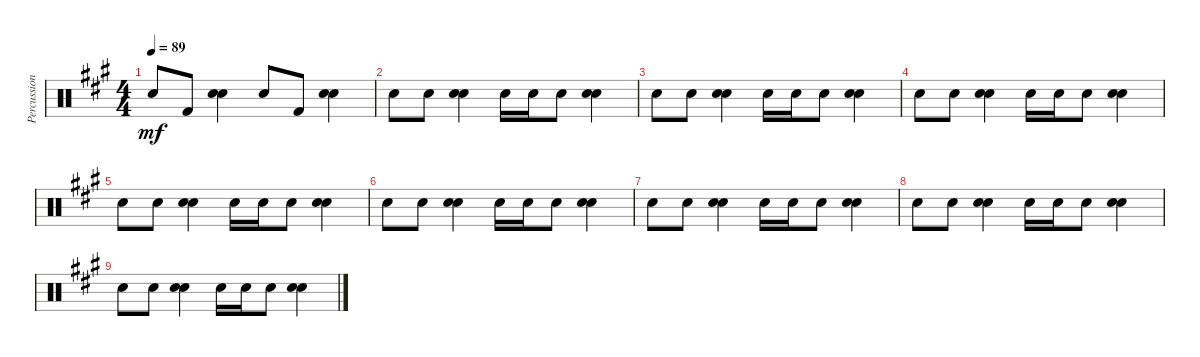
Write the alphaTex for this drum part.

\track ("Percussions" "Percussion") {instrument percussion}
\staff {score}
\articulation defaults
\ts (4 4)
\tempo 89
\clef neutral
\ks a "Electric Snare (hit)".8{dy mf} "Kick (hit) 2".8
("Snare (hit) 2" "Electric Snare (hit)").4 "Electric Snare (hit)".8 "Kick (hit) 2".8 ("Snare (hit) 2" "Electric Snare (hit)").4 |
"Electric Snare (hit)".8 "Electric Snare (hit)".8 ("Snare (hit) 2" "Electric Snare (hit)").4 "Electric Snare (hit)".16 "Electric Snare (hit)".16 "Electric Snare (hit)".8 ("Snare (hit) 2" "Electric Snare (hit)").4 |
"Electric Snare (hit)".8 "Electric Snare (hit)".8 ("Snare (hit) 2" "Electric Snare (hit)").4 "Electric Snare (hit)".16 "Electric Snare (hit)".16 "Electric Snare (hit)".8 ("Snare (hit) 2" "Electric Snare (hit)").4 |
"Electric Snare (hit)".8 "Electric Snare (hit)".8 ("Snare (hit) 2" "Electric Snare (hit)").4 "Electric Snare (hit)".16 "Electric Snare (hit)".16 "Electric Snare (hit)".8 ("Snare (hit) 2" "Electric Snare (hit)").4 |
"Electric Snare (hit)".8 "Electric Snare (hit)".8 ("Snare (hit) 2" "Electric Snare (hit)").4 "Electric Snare (hit)".16 "Electric Snare (hit)".16 "Electric Snare (hit)".8 ("Snare (hit) 2" "Electric Snare (hit)").4 |
"Electric Snare (hit)".8 "Electric Snare (hit)".8 ("Snare (hit) 2" "Electric Snare (hit)").4 "Electric Snare (hit)".16 "Electric Snare (hit)".16 "Electric Snare (hit)".8 ("Snare (hit) 2" "Electric Snare (hit)").4 |
"Electric Snare (hit)".8 "Electric Snare (hit)".8 ("Snare (hit) 2" "Electric Snare (hit)").4 "Electric Snare (hit)".16 "Electric Snare (hit)".16 "Electric Snare (hit)".8 ("Snare (hit) 2" "Electric Snare (hit)").4 |
"Electric Snare (hit)".8 "Electric Snare (hit)".8 ("Snare (hit) 2" "Electric Snare (hit)").4 "Electric Snare (hit)".16 "Electric Snare (hit)".16 "Electric Snare (hit)".8 ("Snare (hit) 2" "Electric Snare (hit)").4 |
"Electric Snare (hit)".8 "Electric Snare (hit)".8 ("Snare (hit) 2" "Electric Snare (hit)").4 "Electric Snare (hit)".16 "Electric Snare (hit)".16 "Electric Snare (hit)".8 ("Snare (hit) 2" "Electric Snare (hit)").4
